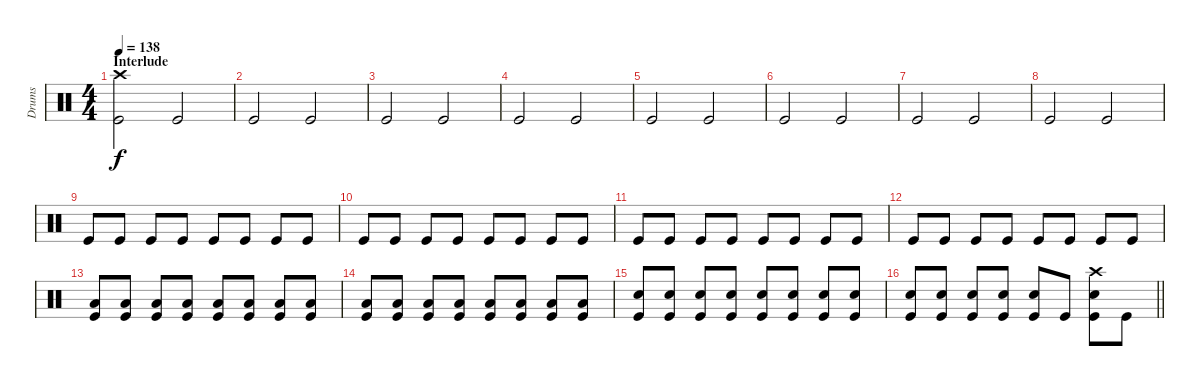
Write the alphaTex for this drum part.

\track ("Drums" "Drums") {instrument percussion}
\staff {score}
\articulation defaults
\ts (4 4)
\section ("" "Interlude ")
\tempo 138
\clef neutral
\ks c
("Crash high (hit)" "Kick (hit)").2{dy f} "Kick (hit)".2 |
"Kick (hit)".2 "Kick (hit)".2 |
"Kick (hit)".2 "Kick (hit)".2 |
"Kick (hit)".2 "Kick (hit)".2 |
"Kick (hit)".2 "Kick (hit)".2 |
"Kick (hit)".2 "Kick (hit)".2 |
"Kick (hit)".2 "Kick (hit)".2 |
"Kick (hit)".2 "Kick (hit)".2 |
"Kick (hit)".8 "Kick (hit)".8 "Kick (hit)".8 "Kick (hit)".8 "Kick (hit)".8 "Kick (hit)".8 "Kick (hit)".8 "Kick (hit)".8 |
"Kick (hit)".8 "Kick (hit)".8 "Kick (hit)".8 "Kick (hit)".8 "Kick (hit)".8 "Kick (hit)".8 "Kick (hit)".8 "Kick (hit)".8 |
"Kick (hit)".8 "Kick (hit)".8 "Kick (hit)".8 "Kick (hit)".8 "Kick (hit)".8 "Kick (hit)".8 "Kick (hit)".8 "Kick (hit)".8 |
"Kick (hit)".8 "Kick (hit)".8 "Kick (hit)".8 "Kick (hit)".8 "Kick (hit)".8 "Kick (hit)".8 "Kick (hit)".8 "Kick (hit)".8 |
("Low Floor Tom (hit)" "Kick (hit)").8 ("Low Floor Tom (hit)" "Kick (hit)").8 ("Low Floor Tom (hit)" "Kick (hit)").8 ("Low Floor Tom (hit)" "Kick (hit)").8 ("Low Floor Tom (hit)" "Kick (hit)").8 ("Low Floor Tom (hit)" "Kick (hit)").8 ("Low Floor Tom (hit)" "Kick (hit)").8 ("Low Floor Tom (hit)" "Kick (hit)").8 |
("Low Floor Tom (hit)" "Kick (hit)").8 ("Low Floor Tom (hit)" "Kick (hit)").8 ("Low Floor Tom (hit)" "Kick (hit)").8 ("Low Floor Tom (hit)" "Kick (hit)").8 ("Low Floor Tom (hit)" "Kick (hit)").8 ("Low Floor Tom (hit)" "Kick (hit)").8 ("Low Floor Tom (hit)" "Kick (hit)").8 ("Low Floor Tom (hit)" "Kick (hit)").8 |
("Electric Snare (hit)" "Kick (hit)").8 ("Electric Snare (hit)" "Kick (hit)").8 ("Electric Snare (hit)" "Kick (hit)").8 ("Electric Snare (hit)" "Kick (hit)").8 ("Electric Snare (hit)" "Kick (hit)").8 ("Electric Snare (hit)" "Kick (hit)").8 ("Electric Snare (hit)" "Kick (hit)").8 ("Electric Snare (hit)" "Kick (hit)").8 |
\barLineRight lightlight
("Electric Snare (hit)" "Kick (hit)").8 ("Electric Snare (hit)" "Kick (hit)").8 ("Electric Snare (hit)" "Kick (hit)").8 ("Electric Snare (hit)" "Kick (hit)").8 ("Electric Snare (hit)" "Kick (hit)").8 "Kick (hit)".8 ("Crash high (hit)" "Electric Snare (hit)" "Kick (hit)").8 "Kick (hit)".8
